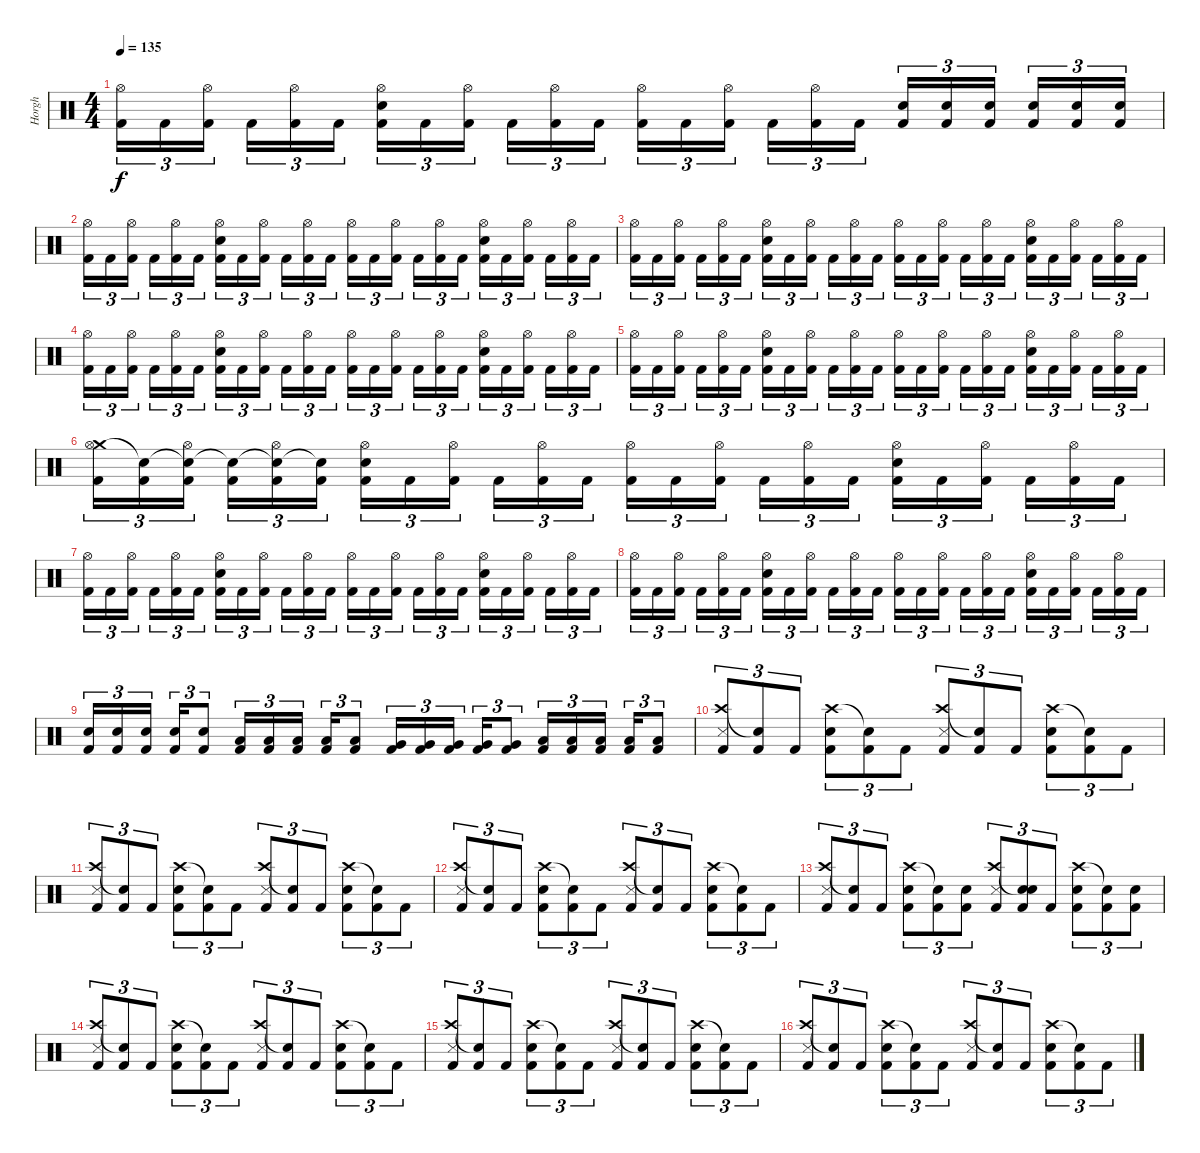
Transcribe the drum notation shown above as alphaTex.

\track ("Horgh" "Horgh") {instrument percussion}
\staff {score}
\articulation defaults
\ts (4 4)
\tempo 135
\clef neutral
\ks c
("Hi-Hat (open)" "Kick (hit) 2").16{tu (3 2) dy f} "Kick (hit) 2".16{tu (3 2)} ("Hi-Hat (open)" "Kick (hit) 2").16{tu (3 2) beam splitsecondary} "Kick (hit) 2".16{tu (3 2)} ("Hi-Hat (open)" "Kick (hit) 2").16{tu (3 2)} "Kick (hit) 2".16{tu (3 2)} ("Hi-Hat (open)" "Electric Snare (hit)" "Kick (hit) 2").16{tu (3 2)} "Kick (hit) 2".16{tu (3 2)} ("Hi-Hat (open)" "Kick (hit) 2").16{tu (3 2) beam splitsecondary} "Kick (hit) 2".16{tu (3 2)} ("Hi-Hat (open)" "Kick (hit) 2").16{tu (3 2)} "Kick (hit) 2".16{tu (3 2)} ("Hi-Hat (open)" "Kick (hit) 2").16{tu (3 2)} "Kick (hit) 2".16{tu (3 2)} ("Hi-Hat (open)" "Kick (hit) 2").16{tu (3 2) beam splitsecondary} "Kick (hit) 2".16{tu (3 2)} ("Hi-Hat (open)" "Kick (hit) 2").16{tu (3 2)} "Kick (hit) 2".16{tu (3 2)} ("Electric Snare (hit)" "Kick (hit) 2").16{tu (3 2)} ("Electric Snare (hit)" "Kick (hit) 2").16{tu (3 2)} ("Electric Snare (hit)" "Kick (hit) 2").16{tu (3 2) beam splitsecondary} ("Electric Snare (hit)" "Kick (hit) 2").16{tu (3 2)} ("Electric Snare (hit)" "Kick (hit) 2").16{tu (3 2)} ("Electric Snare (hit)" "Kick (hit) 2").16{tu (3 2)} |
("Hi-Hat (open)" "Kick (hit) 2").16{tu (3 2)} "Kick (hit) 2".16{tu (3 2)} ("Hi-Hat (open)" "Kick (hit) 2").16{tu (3 2) beam splitsecondary} "Kick (hit) 2".16{tu (3 2)} ("Hi-Hat (open)" "Kick (hit) 2").16{tu (3 2)} "Kick (hit) 2".16{tu (3 2)} ("Hi-Hat (open)" "Electric Snare (hit)" "Kick (hit) 2").16{tu (3 2)} "Kick (hit) 2".16{tu (3 2)} ("Hi-Hat (open)" "Kick (hit) 2").16{tu (3 2) beam splitsecondary} "Kick (hit) 2".16{tu (3 2)} ("Hi-Hat (open)" "Kick (hit) 2").16{tu (3 2)} "Kick (hit) 2".16{tu (3 2)} ("Hi-Hat (open)" "Kick (hit) 2").16{tu (3 2)} "Kick (hit) 2".16{tu (3 2)} ("Hi-Hat (open)" "Kick (hit) 2").16{tu (3 2) beam splitsecondary} "Kick (hit) 2".16{tu (3 2)} ("Hi-Hat (open)" "Kick (hit) 2").16{tu (3 2)} "Kick (hit) 2".16{tu (3 2)} ("Hi-Hat (open)" "Electric Snare (hit)" "Kick (hit) 2").16{tu (3 2)} "Kick (hit) 2".16{tu (3 2)} ("Hi-Hat (open)" "Kick (hit) 2").16{tu (3 2) beam splitsecondary} "Kick (hit) 2".16{tu (3 2)} ("Hi-Hat (open)" "Kick (hit) 2").16{tu (3 2)} "Kick (hit) 2".16{tu (3 2)} |
("Hi-Hat (open)" "Kick (hit) 2").16{tu (3 2)} "Kick (hit) 2".16{tu (3 2)} ("Hi-Hat (open)" "Kick (hit) 2").16{tu (3 2) beam splitsecondary} "Kick (hit) 2".16{tu (3 2)} ("Hi-Hat (open)" "Kick (hit) 2").16{tu (3 2)} "Kick (hit) 2".16{tu (3 2)} ("Hi-Hat (open)" "Electric Snare (hit)" "Kick (hit) 2").16{tu (3 2)} "Kick (hit) 2".16{tu (3 2)} ("Hi-Hat (open)" "Kick (hit) 2").16{tu (3 2) beam splitsecondary} "Kick (hit) 2".16{tu (3 2)} ("Hi-Hat (open)" "Kick (hit) 2").16{tu (3 2)} "Kick (hit) 2".16{tu (3 2)} ("Hi-Hat (open)" "Kick (hit) 2").16{tu (3 2)} "Kick (hit) 2".16{tu (3 2)} ("Hi-Hat (open)" "Kick (hit) 2").16{tu (3 2) beam splitsecondary} "Kick (hit) 2".16{tu (3 2)} ("Hi-Hat (open)" "Kick (hit) 2").16{tu (3 2)} "Kick (hit) 2".16{tu (3 2)} ("Hi-Hat (open)" "Electric Snare (hit)" "Kick (hit) 2").16{tu (3 2)} "Kick (hit) 2".16{tu (3 2)} ("Hi-Hat (open)" "Kick (hit) 2").16{tu (3 2) beam splitsecondary} "Kick (hit) 2".16{tu (3 2)} ("Hi-Hat (open)" "Kick (hit) 2").16{tu (3 2)} "Kick (hit) 2".16{tu (3 2)} |
("Hi-Hat (open)" "Kick (hit) 2").16{tu (3 2)} "Kick (hit) 2".16{tu (3 2)} ("Hi-Hat (open)" "Kick (hit) 2").16{tu (3 2) beam splitsecondary} "Kick (hit) 2".16{tu (3 2)} ("Hi-Hat (open)" "Kick (hit) 2").16{tu (3 2)} "Kick (hit) 2".16{tu (3 2)} ("Hi-Hat (open)" "Electric Snare (hit)" "Kick (hit) 2").16{tu (3 2)} "Kick (hit) 2".16{tu (3 2)} ("Hi-Hat (open)" "Kick (hit) 2").16{tu (3 2) beam splitsecondary} "Kick (hit) 2".16{tu (3 2)} ("Hi-Hat (open)" "Kick (hit) 2").16{tu (3 2)} "Kick (hit) 2".16{tu (3 2)} ("Hi-Hat (open)" "Kick (hit) 2").16{tu (3 2)} "Kick (hit) 2".16{tu (3 2)} ("Hi-Hat (open)" "Kick (hit) 2").16{tu (3 2) beam splitsecondary} "Kick (hit) 2".16{tu (3 2)} ("Hi-Hat (open)" "Kick (hit) 2").16{tu (3 2)} "Kick (hit) 2".16{tu (3 2)} ("Hi-Hat (open)" "Electric Snare (hit)" "Kick (hit) 2").16{tu (3 2)} "Kick (hit) 2".16{tu (3 2)} ("Hi-Hat (open)" "Kick (hit) 2").16{tu (3 2) beam splitsecondary} "Kick (hit) 2".16{tu (3 2)} ("Hi-Hat (open)" "Kick (hit) 2").16{tu (3 2)} "Kick (hit) 2".16{tu (3 2)} |
("Hi-Hat (open)" "Kick (hit) 2").16{tu (3 2)} "Kick (hit) 2".16{tu (3 2)} ("Hi-Hat (open)" "Kick (hit) 2").16{tu (3 2) beam splitsecondary} "Kick (hit) 2".16{tu (3 2)} ("Hi-Hat (open)" "Kick (hit) 2").16{tu (3 2)} "Kick (hit) 2".16{tu (3 2)} ("Hi-Hat (open)" "Electric Snare (hit)" "Kick (hit) 2").16{tu (3 2)} "Kick (hit) 2".16{tu (3 2)} ("Hi-Hat (open)" "Kick (hit) 2").16{tu (3 2) beam splitsecondary} "Kick (hit) 2".16{tu (3 2)} ("Hi-Hat (open)" "Kick (hit) 2").16{tu (3 2)} "Kick (hit) 2".16{tu (3 2)} ("Hi-Hat (open)" "Kick (hit) 2").16{tu (3 2)} "Kick (hit) 2".16{tu (3 2)} ("Hi-Hat (open)" "Kick (hit) 2").16{tu (3 2) beam splitsecondary} "Kick (hit) 2".16{tu (3 2)} ("Hi-Hat (open)" "Kick (hit) 2").16{tu (3 2)} "Kick (hit) 2".16{tu (3 2)} ("Hi-Hat (open)" "Electric Snare (hit)" "Kick (hit) 2").16{tu (3 2)} "Kick (hit) 2".16{tu (3 2)} ("Hi-Hat (open)" "Kick (hit) 2").16{tu (3 2) beam splitsecondary} "Kick (hit) 2".16{tu (3 2)} ("Hi-Hat (open)" "Kick (hit) 2").16{tu (3 2)} "Kick (hit) 2".16{tu (3 2)} |
("Crash medium (hit)" "Hi-Hat (open)" "Kick (hit) 2").16{tu (3 2)} ("Snare (hit)"{t} "Kick (hit) 2").16{tu (3 2)} ("Snare (hit)"{t} "Hi-Hat (open)" "Kick (hit) 2").16{tu (3 2) beam splitsecondary} ("Snare (hit)"{t} "Kick (hit) 2").16{tu (3 2)} ("Snare (hit)"{t} "Hi-Hat (open)" "Kick (hit) 2").16{tu (3 2)} ("Snare (hit)"{t} "Kick (hit) 2").16{tu (3 2)} ("Hi-Hat (open)" "Electric Snare (hit)" "Kick (hit) 2").16{tu (3 2)} "Kick (hit) 2".16{tu (3 2)} ("Hi-Hat (open)" "Kick (hit) 2").16{tu (3 2) beam splitsecondary} "Kick (hit) 2".16{tu (3 2)} ("Hi-Hat (open)" "Kick (hit) 2").16{tu (3 2)} "Kick (hit) 2".16{tu (3 2)} ("Hi-Hat (open)" "Kick (hit) 2").16{tu (3 2)} "Kick (hit) 2".16{tu (3 2)} ("Hi-Hat (open)" "Kick (hit) 2").16{tu (3 2) beam splitsecondary} "Kick (hit) 2".16{tu (3 2)} ("Hi-Hat (open)" "Kick (hit) 2").16{tu (3 2)} "Kick (hit) 2".16{tu (3 2)} ("Hi-Hat (open)" "Electric Snare (hit)" "Kick (hit) 2").16{tu (3 2)} "Kick (hit) 2".16{tu (3 2)} ("Hi-Hat (open)" "Kick (hit) 2").16{tu (3 2) beam splitsecondary} "Kick (hit) 2".16{tu (3 2)} ("Hi-Hat (open)" "Kick (hit) 2").16{tu (3 2)} "Kick (hit) 2".16{tu (3 2)} |
("Hi-Hat (open)" "Kick (hit) 2").16{tu (3 2)} "Kick (hit) 2".16{tu (3 2)} ("Hi-Hat (open)" "Kick (hit) 2").16{tu (3 2) beam splitsecondary} "Kick (hit) 2".16{tu (3 2)} ("Hi-Hat (open)" "Kick (hit) 2").16{tu (3 2)} "Kick (hit) 2".16{tu (3 2)} ("Hi-Hat (open)" "Electric Snare (hit)" "Kick (hit) 2").16{tu (3 2)} "Kick (hit) 2".16{tu (3 2)} ("Hi-Hat (open)" "Kick (hit) 2").16{tu (3 2) beam splitsecondary} "Kick (hit) 2".16{tu (3 2)} ("Hi-Hat (open)" "Kick (hit) 2").16{tu (3 2)} "Kick (hit) 2".16{tu (3 2)} ("Hi-Hat (open)" "Kick (hit) 2").16{tu (3 2)} "Kick (hit) 2".16{tu (3 2)} ("Hi-Hat (open)" "Kick (hit) 2").16{tu (3 2) beam splitsecondary} "Kick (hit) 2".16{tu (3 2)} ("Hi-Hat (open)" "Kick (hit) 2").16{tu (3 2)} "Kick (hit) 2".16{tu (3 2)} ("Hi-Hat (open)" "Electric Snare (hit)" "Kick (hit) 2").16{tu (3 2)} "Kick (hit) 2".16{tu (3 2)} ("Hi-Hat (open)" "Kick (hit) 2").16{tu (3 2) beam splitsecondary} "Kick (hit) 2".16{tu (3 2)} ("Hi-Hat (open)" "Kick (hit) 2").16{tu (3 2)} "Kick (hit) 2".16{tu (3 2)} |
("Hi-Hat (open)" "Kick (hit) 2").16{tu (3 2)} "Kick (hit) 2".16{tu (3 2)} ("Hi-Hat (open)" "Kick (hit) 2").16{tu (3 2) beam splitsecondary} "Kick (hit) 2".16{tu (3 2)} ("Hi-Hat (open)" "Kick (hit) 2").16{tu (3 2)} "Kick (hit) 2".16{tu (3 2)} ("Hi-Hat (open)" "Electric Snare (hit)" "Kick (hit) 2").16{tu (3 2)} "Kick (hit) 2".16{tu (3 2)} ("Hi-Hat (open)" "Kick (hit) 2").16{tu (3 2) beam splitsecondary} "Kick (hit) 2".16{tu (3 2)} ("Hi-Hat (open)" "Kick (hit) 2").16{tu (3 2)} "Kick (hit) 2".16{tu (3 2)} ("Hi-Hat (open)" "Kick (hit) 2").16{tu (3 2)} "Kick (hit) 2".16{tu (3 2)} ("Hi-Hat (open)" "Kick (hit) 2").16{tu (3 2) beam splitsecondary} "Kick (hit) 2".16{tu (3 2)} ("Hi-Hat (open)" "Kick (hit) 2").16{tu (3 2)} "Kick (hit) 2".16{tu (3 2)} ("Hi-Hat (open)" "Electric Snare (hit)" "Kick (hit) 2").16{tu (3 2)} "Kick (hit) 2".16{tu (3 2)} ("Hi-Hat (open)" "Kick (hit) 2").16{tu (3 2) beam splitsecondary} "Kick (hit) 2".16{tu (3 2)} ("Hi-Hat (open)" "Kick (hit) 2").16{tu (3 2)} "Kick (hit) 2".16{tu (3 2)} |
("Electric Snare (hit)" "Kick (hit) 2").16{tu (3 2)} ("Electric Snare (hit)" "Kick (hit) 2").16{tu (3 2)} ("Electric Snare (hit)" "Kick (hit) 2").16{tu (3 2) beam splitsecondary} ("Electric Snare (hit)" "Kick (hit) 2").16{tu (3 2)} ("Electric Snare (hit)" "Kick (hit) 2").8{tu (3 2)} ("Low Floor Tom (hit)" "Kick (hit) 2").16{tu (3 2)} ("Low Floor Tom (hit)" "Kick (hit) 2").16{tu (3 2)} ("Low Floor Tom (hit)" "Kick (hit) 2").16{tu (3 2) beam splitsecondary} ("Low Floor Tom (hit)" "Kick (hit) 2").16{tu (3 2)} ("Low Floor Tom (hit)" "Kick (hit) 2").8{tu (3 2)} ("Very Low Tom (hit)" "Kick (hit) 2").16{tu (3 2)} ("Very Low Tom (hit)" "Kick (hit) 2").16{tu (3 2)} ("Very Low Tom (hit)" "Kick (hit) 2").16{tu (3 2) beam splitsecondary} ("Very Low Tom (hit)" "Kick (hit) 2").16{tu (3 2)} ("Very Low Tom (hit)" "Kick (hit) 2").8{tu (3 2)} ("Low Tom (hit)" "Kick (hit) 2").16{tu (3 2)} ("Low Tom (hit)" "Kick (hit) 2").16{tu (3 2)} ("Low Tom (hit)" "Kick (hit) 2").16{tu (3 2) beam splitsecondary} ("Low Tom (hit)" "Kick (hit) 2").16{tu (3 2)} ("Low Tom (hit)" "Kick (hit) 2").8{tu (3 2)} |
("Crash high (hit)" "Snare (side stick) 3" "Kick (hit) 2").8{tu (3 2)} ("Snare (hit)"{t} "Kick (hit) 2").8{tu (3 2)} "Kick (hit) 2".8{tu (3 2)} ("Crash high (hit)" "Electric Snare (hit)" "Kick (hit) 2").8{tu (3 2)} ("Snare (hit)"{t} "Kick (hit) 2").8{tu (3 2)} "Kick (hit) 2".8{tu (3 2)} ("Crash high (hit)" "Snare (side stick) 3" "Kick (hit) 2").8{tu (3 2)} ("Snare (hit)"{t} "Kick (hit) 2").8{tu (3 2)} "Kick (hit) 2".8{tu (3 2)} ("Crash high (hit)" "Electric Snare (hit)" "Kick (hit) 2").8{tu (3 2)} ("Snare (hit)"{t} "Kick (hit) 2").8{tu (3 2)} "Kick (hit) 2".8{tu (3 2)} |
("Crash high (hit)" "Snare (side stick) 3" "Kick (hit) 2").8{tu (3 2)} ("Snare (hit)"{t} "Kick (hit) 2").8{tu (3 2)} "Kick (hit) 2".8{tu (3 2)} ("Crash high (hit)" "Electric Snare (hit)" "Kick (hit) 2").8{tu (3 2)} ("Snare (hit)"{t} "Kick (hit) 2").8{tu (3 2)} "Kick (hit) 2".8{tu (3 2)} ("Crash high (hit)" "Snare (side stick) 3" "Kick (hit) 2").8{tu (3 2)} ("Snare (hit)"{t} "Kick (hit) 2").8{tu (3 2)} "Kick (hit) 2".8{tu (3 2)} ("Crash high (hit)" "Electric Snare (hit)" "Kick (hit) 2").8{tu (3 2)} ("Snare (hit)"{t} "Kick (hit) 2").8{tu (3 2)} "Kick (hit) 2".8{tu (3 2)} |
("Crash high (hit)" "Snare (side stick) 3" "Kick (hit) 2").8{tu (3 2)} ("Snare (hit)"{t} "Kick (hit) 2").8{tu (3 2)} "Kick (hit) 2".8{tu (3 2)} ("Crash high (hit)" "Electric Snare (hit)" "Kick (hit) 2").8{tu (3 2)} ("Snare (hit)"{t} "Kick (hit) 2").8{tu (3 2)} "Kick (hit) 2".8{tu (3 2)} ("Crash high (hit)" "Snare (side stick) 3" "Kick (hit) 2").8{tu (3 2)} ("Snare (hit)"{t} "Kick (hit) 2").8{tu (3 2)} "Kick (hit) 2".8{tu (3 2)} ("Crash high (hit)" "Electric Snare (hit)" "Kick (hit) 2").8{tu (3 2)} ("Snare (hit)"{t} "Kick (hit) 2").8{tu (3 2)} "Kick (hit) 2".8{tu (3 2)} |
("Crash high (hit)" "Snare (side stick) 3" "Kick (hit) 2").8{tu (3 2)} ("Snare (hit)"{t} "Kick (hit) 2").8{tu (3 2)} "Kick (hit) 2".8{tu (3 2)} ("Crash high (hit)" "Electric Snare (hit)" "Kick (hit) 2").8{tu (3 2)} ("Snare (hit)"{t} "Kick (hit) 2").8{tu (3 2)} ("Electric Snare (hit)" "Kick (hit) 2").8{tu (3 2)} ("Crash high (hit)" "Snare (side stick) 3" "Kick (hit) 2").8{tu (3 2)} ("Snare (hit)"{t} "Electric Snare (hit)" "Kick (hit) 2").8{tu (3 2)} "Kick (hit) 2".8{tu (3 2)} ("Crash high (hit)" "Electric Snare (hit)" "Kick (hit) 2").8{tu (3 2)} ("Snare (hit)"{t} "Kick (hit) 2").8{tu (3 2)} ("Electric Snare (hit)" "Kick (hit) 2").8{tu (3 2)} |
("Crash high (hit)" "Snare (side stick) 3" "Kick (hit) 2").8{tu (3 2)} ("Snare (hit)"{t} "Kick (hit) 2").8{tu (3 2)} "Kick (hit) 2".8{tu (3 2)} ("Crash high (hit)" "Electric Snare (hit)" "Kick (hit) 2").8{tu (3 2)} ("Snare (hit)"{t} "Kick (hit) 2").8{tu (3 2)} "Kick (hit) 2".8{tu (3 2)} ("Crash high (hit)" "Snare (side stick) 3" "Kick (hit) 2").8{tu (3 2)} ("Snare (hit)"{t} "Kick (hit) 2").8{tu (3 2)} "Kick (hit) 2".8{tu (3 2)} ("Crash high (hit)" "Electric Snare (hit)" "Kick (hit) 2").8{tu (3 2)} ("Snare (hit)"{t} "Kick (hit) 2").8{tu (3 2)} "Kick (hit) 2".8{tu (3 2)} |
("Crash high (hit)" "Snare (side stick) 3" "Kick (hit) 2").8{tu (3 2)} ("Snare (hit)"{t} "Kick (hit) 2").8{tu (3 2)} "Kick (hit) 2".8{tu (3 2)} ("Crash high (hit)" "Electric Snare (hit)" "Kick (hit) 2").8{tu (3 2)} ("Snare (hit)"{t} "Kick (hit) 2").8{tu (3 2)} "Kick (hit) 2".8{tu (3 2)} ("Crash high (hit)" "Snare (side stick) 3" "Kick (hit) 2").8{tu (3 2)} ("Snare (hit)"{t} "Kick (hit) 2").8{tu (3 2)} "Kick (hit) 2".8{tu (3 2)} ("Crash high (hit)" "Electric Snare (hit)" "Kick (hit) 2").8{tu (3 2)} ("Snare (hit)"{t} "Kick (hit) 2").8{tu (3 2)} "Kick (hit) 2".8{tu (3 2)} |
("Crash high (hit)" "Snare (side stick) 3" "Kick (hit) 2").8{tu (3 2)} ("Snare (hit)"{t} "Kick (hit) 2").8{tu (3 2)} "Kick (hit) 2".8{tu (3 2)} ("Crash high (hit)" "Electric Snare (hit)" "Kick (hit) 2").8{tu (3 2)} ("Snare (hit)"{t} "Kick (hit) 2").8{tu (3 2)} "Kick (hit) 2".8{tu (3 2)} ("Crash high (hit)" "Snare (side stick) 3" "Kick (hit) 2").8{tu (3 2)} ("Snare (hit)"{t} "Kick (hit) 2").8{tu (3 2)} "Kick (hit) 2".8{tu (3 2)} ("Crash high (hit)" "Electric Snare (hit)" "Kick (hit) 2").8{tu (3 2)} ("Snare (hit)"{t} "Kick (hit) 2").8{tu (3 2)} "Kick (hit) 2".8{tu (3 2)}
